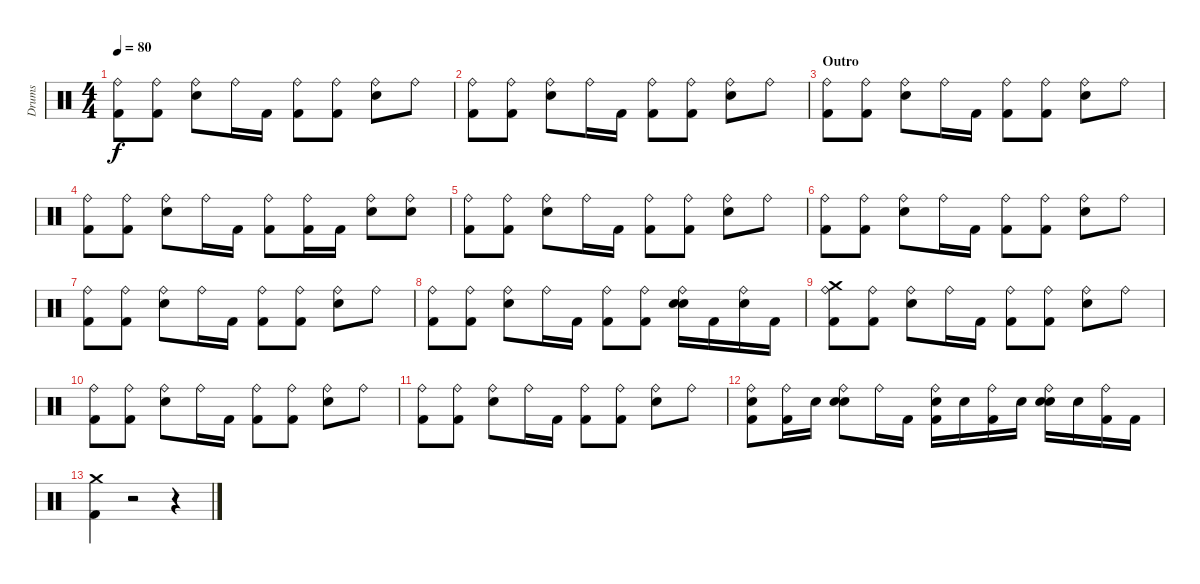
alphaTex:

\track ("Drums" "Drums") {instrument percussion}
\staff {score}
\articulation defaults
\ts (4 4)
\tempo 80
\clef neutral
\ks c
("Kick (hit) 2" "Ride (bell)").8{dy f} ("Kick (hit) 2" "Ride (bell)").8 ("Electric Snare (hit)" "Ride (bell)").8 "Ride (bell)".16 "Kick (hit) 2".16 ("Kick (hit) 2" "Ride (bell)").8 ("Kick (hit) 2" "Ride (bell)").8 ("Electric Snare (hit)" "Ride (bell)").8 "Ride (bell)".8 |
("Kick (hit) 2" "Ride (bell)").8 ("Kick (hit) 2" "Ride (bell)").8 ("Electric Snare (hit)" "Ride (bell)").8 "Ride (bell)".16 "Kick (hit) 2".16 ("Kick (hit) 2" "Ride (bell)").8 ("Kick (hit) 2" "Ride (bell)").8 ("Electric Snare (hit)" "Ride (bell)").8 "Ride (bell)".8 |
\section ("" "Outro")
("Kick (hit) 2" "Ride (bell)").8 ("Kick (hit) 2" "Ride (bell)").8 ("Electric Snare (hit)" "Ride (bell)").8 "Ride (bell)".16 "Kick (hit) 2".16 ("Kick (hit) 2" "Ride (bell)").8 ("Kick (hit) 2" "Ride (bell)").8 ("Electric Snare (hit)" "Ride (bell)").8 "Ride (bell)".8 |
("Kick (hit) 2" "Ride (bell)").8 ("Kick (hit) 2" "Ride (bell)").8 ("Electric Snare (hit)" "Ride (bell)").8 "Ride (bell)".16 "Kick (hit) 2".16 ("Kick (hit) 2" "Ride (bell)").8 ("Kick (hit) 2" "Ride (bell)").16 "Kick (hit) 2".16 ("Electric Snare (hit)" "Ride (bell)").8 ("Electric Snare (hit)" "Ride (bell)").8 |
("Kick (hit) 2" "Ride (bell)").8 ("Kick (hit) 2" "Ride (bell)").8 ("Electric Snare (hit)" "Ride (bell)").8 "Ride (bell)".16 "Kick (hit) 2".16 ("Kick (hit) 2" "Ride (bell)").8 ("Kick (hit) 2" "Ride (bell)").8 ("Electric Snare (hit)" "Ride (bell)").8 "Ride (bell)".8 |
("Kick (hit) 2" "Ride (bell)").8 ("Kick (hit) 2" "Ride (bell)").8 ("Electric Snare (hit)" "Ride (bell)").8 "Ride (bell)".16 "Kick (hit) 2".16 ("Kick (hit) 2" "Ride (bell)").8 ("Kick (hit) 2" "Ride (bell)").8 ("Electric Snare (hit)" "Ride (bell)").8 "Ride (bell)".8 |
("Kick (hit) 2" "Ride (bell)").8 ("Kick (hit) 2" "Ride (bell)").8 ("Electric Snare (hit)" "Ride (bell)").8 "Ride (bell)".16 "Kick (hit) 2".16 ("Kick (hit) 2" "Ride (bell)").8 ("Kick (hit) 2" "Ride (bell)").8 ("Electric Snare (hit)" "Ride (bell)").8 "Ride (bell)".8 |
("Kick (hit) 2" "Ride (bell)").8 ("Kick (hit) 2" "Ride (bell)").8 ("Electric Snare (hit)" "Ride (bell)").8 "Ride (bell)".16 "Kick (hit) 2".16 ("Kick (hit) 2" "Ride (bell)").8 ("Ride (bell)" "Kick (hit) 2").8 ("Ride (bell)" "Electric Snare (hit)" "Electric Snare (hit)").16 "Kick (hit) 2".16 ("Ride (bell)" "Electric Snare (hit)").16 "Kick (hit) 2".16 |
("Kick (hit) 2" "Ride (bell)" "Crash medium (hit)").8 ("Kick (hit) 2" "Ride (bell)").8 ("Electric Snare (hit)" "Ride (bell)").8 "Ride (bell)".16 "Kick (hit) 2".16 ("Kick (hit) 2" "Ride (bell)").8 ("Kick (hit) 2" "Ride (bell)").8 ("Electric Snare (hit)" "Ride (bell)").8 "Ride (bell)".8 |
("Kick (hit) 2" "Ride (bell)").8 ("Kick (hit) 2" "Ride (bell)").8 ("Electric Snare (hit)" "Ride (bell)").8 "Ride (bell)".16 "Kick (hit) 2".16 ("Kick (hit) 2" "Ride (bell)").8 ("Kick (hit) 2" "Ride (bell)").8 ("Electric Snare (hit)" "Ride (bell)").8 "Ride (bell)".8 |
("Kick (hit) 2" "Ride (bell)").8 ("Kick (hit) 2" "Ride (bell)").8 ("Electric Snare (hit)" "Ride (bell)").8 "Ride (bell)".16 "Kick (hit) 2".16 ("Kick (hit) 2" "Ride (bell)").8 ("Kick (hit) 2" "Ride (bell)").8 ("Electric Snare (hit)" "Ride (bell)").8 "Ride (bell)".8 |
("Kick (hit) 2" "Ride (bell)" "Electric Snare (hit)").8 ("Kick (hit) 2" "Ride (bell)").16 "Electric Snare (hit)".16 ("Electric Snare (hit)" "Ride (bell)" "Electric Snare (hit)").8 "Ride (bell)".16 "Kick (hit) 2".16 ("Kick (hit) 2" "Ride (bell)" "Electric Snare (hit)").16 "Electric Snare (hit)".16 ("Ride (bell)" "Kick (hit) 2").16 "Electric Snare (hit)".16 ("Ride (bell)" "Electric Snare (hit)" "Electric Snare (hit)").16 "Electric Snare (hit)".16 ("Ride (bell)" "Kick (hit) 2").16 "Kick (hit) 2".16 |
("Crash medium (hit)" "Kick (hit) 2").4 r.2 r.4
